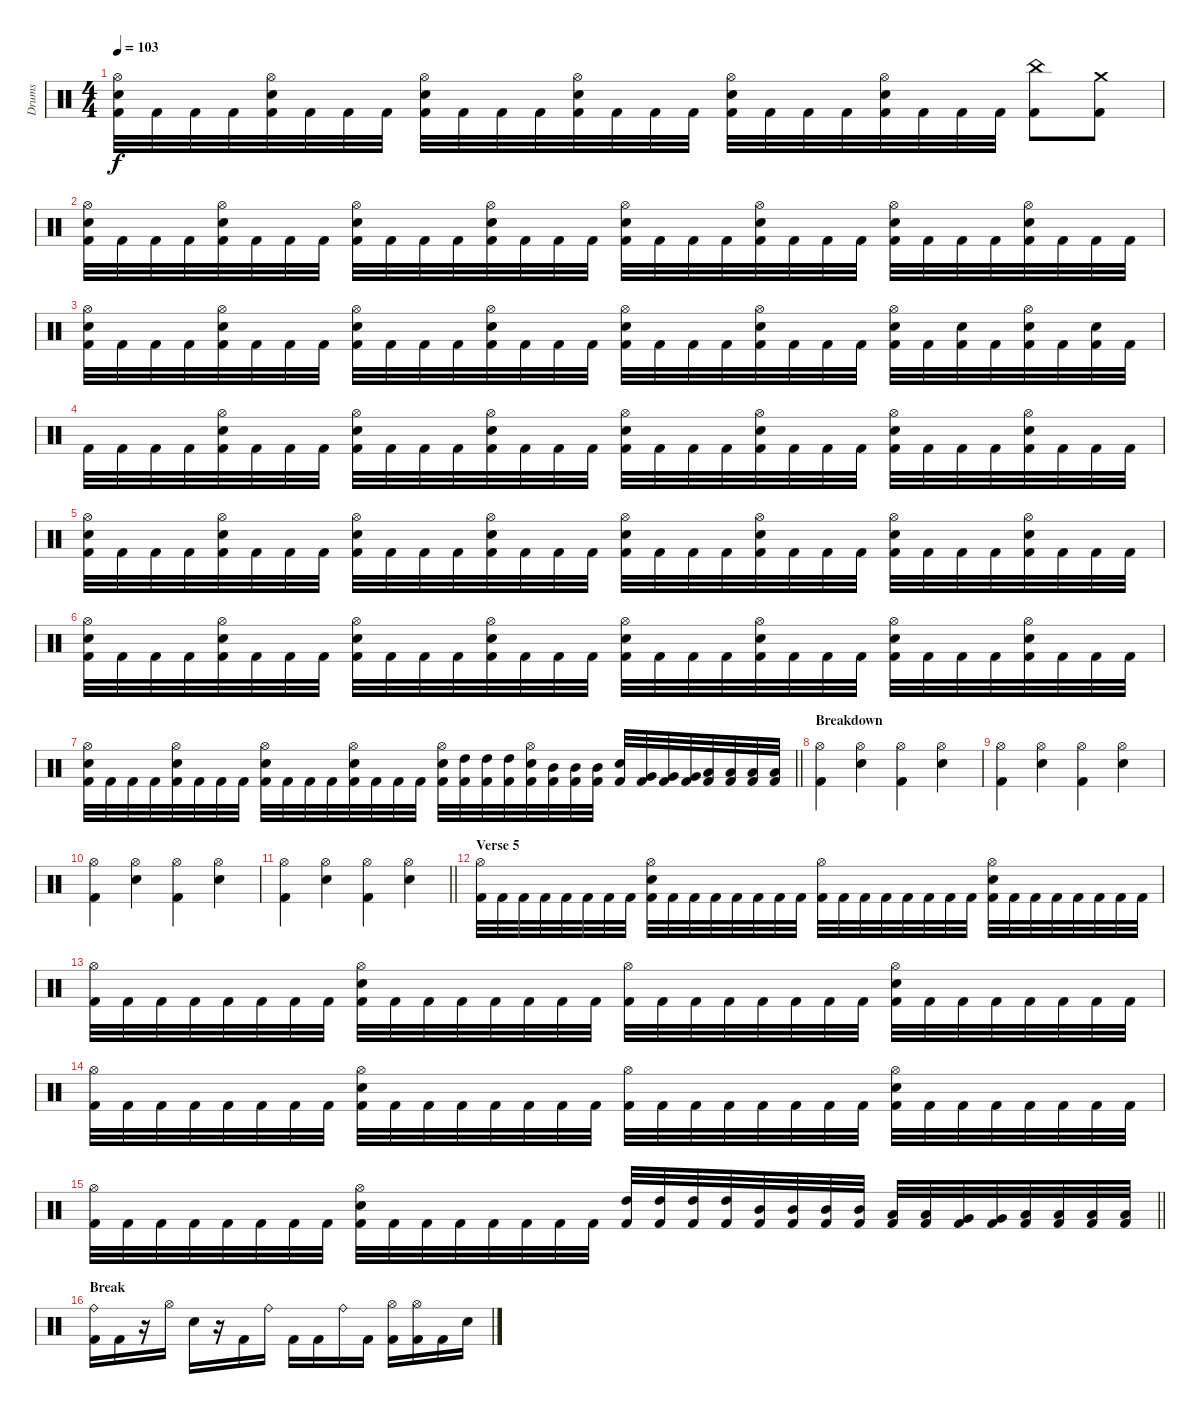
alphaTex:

\track ("Drums" "Drums") {instrument percussion}
\staff {score}
\articulation defaults
\ts (4 4)
\tempo 103
\clef neutral
\ks c
("Hi-Hat (open)" "Electric Snare (hit)" "Kick (hit) 2").32{dy f} "Kick (hit) 2".32 "Kick (hit) 2".32 "Kick (hit) 2".32 ("Hi-Hat (open)" "Electric Snare (hit)" "Kick (hit) 2").32 "Kick (hit) 2".32 "Kick (hit) 2".32 "Kick (hit) 2".32 ("Hi-Hat (open)" "Electric Snare (hit)" "Kick (hit) 2").32 "Kick (hit) 2".32 "Kick (hit) 2".32 "Kick (hit) 2".32 ("Hi-Hat (open)" "Electric Snare (hit)" "Kick (hit) 2").32 "Kick (hit) 2".32 "Kick (hit) 2".32 "Kick (hit) 2".32 ("Hi-Hat (open)" "Electric Snare (hit)" "Kick (hit) 2").32 "Kick (hit) 2".32 "Kick (hit) 2".32 "Kick (hit) 2".32 ("Hi-Hat (open)" "Electric Snare (hit)" "Kick (hit) 2").32 "Kick (hit) 2".32 "Kick (hit) 2".32 "Kick (hit) 2".32 ("China (hit)" "Kick (hit) 2").8 ("Crash medium (hit)" "Kick (hit) 2").8 |
("Hi-Hat (open)" "Electric Snare (hit)" "Kick (hit) 2").32 "Kick (hit) 2".32 "Kick (hit) 2".32 "Kick (hit) 2".32 ("Hi-Hat (open)" "Electric Snare (hit)" "Kick (hit) 2").32 "Kick (hit) 2".32 "Kick (hit) 2".32 "Kick (hit) 2".32 ("Hi-Hat (open)" "Electric Snare (hit)" "Kick (hit) 2").32 "Kick (hit) 2".32 "Kick (hit) 2".32 "Kick (hit) 2".32 ("Hi-Hat (open)" "Electric Snare (hit)" "Kick (hit) 2").32 "Kick (hit) 2".32 "Kick (hit) 2".32 "Kick (hit) 2".32 ("Hi-Hat (open)" "Electric Snare (hit)" "Kick (hit) 2").32 "Kick (hit) 2".32 "Kick (hit) 2".32 "Kick (hit) 2".32 ("Hi-Hat (open)" "Electric Snare (hit)" "Kick (hit) 2").32 "Kick (hit) 2".32 "Kick (hit) 2".32 "Kick (hit) 2".32 ("Hi-Hat (open)" "Electric Snare (hit)" "Kick (hit) 2").32 "Kick (hit) 2".32 "Kick (hit) 2".32 "Kick (hit) 2".32 ("Hi-Hat (open)" "Electric Snare (hit)" "Kick (hit) 2").32 "Kick (hit) 2".32 "Kick (hit) 2".32 "Kick (hit) 2".32 |
("Hi-Hat (open)" "Electric Snare (hit)" "Kick (hit) 2").32 "Kick (hit) 2".32 "Kick (hit) 2".32 "Kick (hit) 2".32 ("Hi-Hat (open)" "Electric Snare (hit)" "Kick (hit) 2").32 "Kick (hit) 2".32 "Kick (hit) 2".32 "Kick (hit) 2".32 ("Hi-Hat (open)" "Electric Snare (hit)" "Kick (hit) 2").32 "Kick (hit) 2".32 "Kick (hit) 2".32 "Kick (hit) 2".32 ("Hi-Hat (open)" "Electric Snare (hit)" "Kick (hit) 2").32 "Kick (hit) 2".32 "Kick (hit) 2".32 "Kick (hit) 2".32 ("Hi-Hat (open)" "Electric Snare (hit)" "Kick (hit) 2").32 "Kick (hit) 2".32 "Kick (hit) 2".32 "Kick (hit) 2".32 ("Hi-Hat (open)" "Electric Snare (hit)" "Kick (hit) 2").32 "Kick (hit) 2".32 "Kick (hit) 2".32 "Kick (hit) 2".32 ("Hi-Hat (open)" "Electric Snare (hit)" "Kick (hit) 2").32 "Kick (hit) 2".32 ("Electric Snare (hit)" "Kick (hit) 2").32 "Kick (hit) 2".32 ("Hi-Hat (open)" "Electric Snare (hit)" "Kick (hit) 2").32 "Kick (hit) 2".32 ("Electric Snare (hit)" "Kick (hit) 2").32 "Kick (hit) 2".32 |
"Kick (hit) 2".32 "Kick (hit) 2".32 "Kick (hit) 2".32 "Kick (hit) 2".32 ("Hi-Hat (open)" "Electric Snare (hit)" "Kick (hit) 2").32 "Kick (hit) 2".32 "Kick (hit) 2".32 "Kick (hit) 2".32 ("Hi-Hat (open)" "Electric Snare (hit)" "Kick (hit) 2").32 "Kick (hit) 2".32 "Kick (hit) 2".32 "Kick (hit) 2".32 ("Hi-Hat (open)" "Electric Snare (hit)" "Kick (hit) 2").32 "Kick (hit) 2".32 "Kick (hit) 2".32 "Kick (hit) 2".32 ("Hi-Hat (open)" "Electric Snare (hit)" "Kick (hit) 2").32 "Kick (hit) 2".32 "Kick (hit) 2".32 "Kick (hit) 2".32 ("Hi-Hat (open)" "Electric Snare (hit)" "Kick (hit) 2").32 "Kick (hit) 2".32 "Kick (hit) 2".32 "Kick (hit) 2".32 ("Hi-Hat (open)" "Electric Snare (hit)" "Kick (hit) 2").32 "Kick (hit) 2".32 "Kick (hit) 2".32 "Kick (hit) 2".32 ("Hi-Hat (open)" "Electric Snare (hit)" "Kick (hit) 2").32 "Kick (hit) 2".32 "Kick (hit) 2".32 "Kick (hit) 2".32 |
("Hi-Hat (open)" "Electric Snare (hit)" "Kick (hit) 2").32 "Kick (hit) 2".32 "Kick (hit) 2".32 "Kick (hit) 2".32 ("Hi-Hat (open)" "Electric Snare (hit)" "Kick (hit) 2").32 "Kick (hit) 2".32 "Kick (hit) 2".32 "Kick (hit) 2".32 ("Hi-Hat (open)" "Electric Snare (hit)" "Kick (hit) 2").32 "Kick (hit) 2".32 "Kick (hit) 2".32 "Kick (hit) 2".32 ("Hi-Hat (open)" "Electric Snare (hit)" "Kick (hit) 2").32 "Kick (hit) 2".32 "Kick (hit) 2".32 "Kick (hit) 2".32 ("Hi-Hat (open)" "Electric Snare (hit)" "Kick (hit) 2").32 "Kick (hit) 2".32 "Kick (hit) 2".32 "Kick (hit) 2".32 ("Hi-Hat (open)" "Electric Snare (hit)" "Kick (hit) 2").32 "Kick (hit) 2".32 "Kick (hit) 2".32 "Kick (hit) 2".32 ("Hi-Hat (open)" "Electric Snare (hit)" "Kick (hit) 2").32 "Kick (hit) 2".32 "Kick (hit) 2".32 "Kick (hit) 2".32 ("Hi-Hat (open)" "Electric Snare (hit)" "Kick (hit) 2").32 "Kick (hit) 2".32 "Kick (hit) 2".32 "Kick (hit) 2".32 |
("Hi-Hat (open)" "Electric Snare (hit)" "Kick (hit) 2").32 "Kick (hit) 2".32 "Kick (hit) 2".32 "Kick (hit) 2".32 ("Hi-Hat (open)" "Electric Snare (hit)" "Kick (hit) 2").32 "Kick (hit) 2".32 "Kick (hit) 2".32 "Kick (hit) 2".32 ("Hi-Hat (open)" "Electric Snare (hit)" "Kick (hit) 2").32 "Kick (hit) 2".32 "Kick (hit) 2".32 "Kick (hit) 2".32 ("Hi-Hat (open)" "Electric Snare (hit)" "Kick (hit) 2").32 "Kick (hit) 2".32 "Kick (hit) 2".32 "Kick (hit) 2".32 ("Hi-Hat (open)" "Electric Snare (hit)" "Kick (hit) 2").32 "Kick (hit) 2".32 "Kick (hit) 2".32 "Kick (hit) 2".32 ("Hi-Hat (open)" "Electric Snare (hit)" "Kick (hit) 2").32 "Kick (hit) 2".32 "Kick (hit) 2".32 "Kick (hit) 2".32 ("Hi-Hat (open)" "Electric Snare (hit)" "Kick (hit) 2").32 "Kick (hit) 2".32 "Kick (hit) 2".32 "Kick (hit) 2".32 ("Hi-Hat (open)" "Electric Snare (hit)" "Kick (hit) 2").32 "Kick (hit) 2".32 "Kick (hit) 2".32 "Kick (hit) 2".32 |
\barLineRight lightlight
("Hi-Hat (open)" "Electric Snare (hit)" "Kick (hit) 2").32 "Kick (hit) 2".32 "Kick (hit) 2".32 "Kick (hit) 2".32 ("Hi-Hat (open)" "Electric Snare (hit)" "Kick (hit) 2").32 "Kick (hit) 2".32 "Kick (hit) 2".32 "Kick (hit) 2".32 ("Hi-Hat (open)" "Electric Snare (hit)" "Kick (hit) 2").32 "Kick (hit) 2".32 "Kick (hit) 2".32 "Kick (hit) 2".32 ("Hi-Hat (open)" "Electric Snare (hit)" "Kick (hit) 2").32 "Kick (hit) 2".32 "Kick (hit) 2".32 "Kick (hit) 2".32 ("Hi-Hat (open)" "Electric Snare (hit)" "Kick (hit) 2").32 ("High Tom (hit)" "Kick (hit) 2").32 ("High Tom (hit)" "Kick (hit) 2").32 ("High Tom (hit)" "Kick (hit) 2").32 ("Hi-Hat (open)" "Electric Snare (hit)" "Kick (hit) 2").32 ("Mid Tom (hit)" "Kick (hit) 2").32 ("Mid Tom (hit)" "Kick (hit) 2").32 ("Mid Tom (hit)" "Kick (hit) 2").32 ("Electric Snare (hit)" "Kick (hit) 2").32 ("Very Low Tom (hit)" "Kick (hit) 2").32 ("Very Low Tom (hit)" "Kick (hit) 2").32 ("Very Low Tom (hit)" "Kick (hit) 2").32 ("Low Floor Tom (hit)" "Kick (hit) 2").32 ("Low Floor Tom (hit)" "Kick (hit) 2").32 ("Low Floor Tom (hit)" "Kick (hit) 2").32 ("Low Floor Tom (hit)" "Kick (hit) 2").32 |
\section ("" "Breakdown")
("Hi-Hat (open)" "Kick (hit) 2").4 ("Hi-Hat (open)" "Electric Snare (hit)").4 ("Hi-Hat (open)" "Kick (hit) 2").4 ("Hi-Hat (open)" "Electric Snare (hit)").4 |
("Hi-Hat (open)" "Kick (hit) 2").4 ("Hi-Hat (open)" "Electric Snare (hit)").4 ("Hi-Hat (open)" "Kick (hit) 2").4 ("Hi-Hat (open)" "Electric Snare (hit)").4 |
("Hi-Hat (open)" "Kick (hit) 2").4 ("Hi-Hat (open)" "Electric Snare (hit)").4 ("Hi-Hat (open)" "Kick (hit) 2").4 ("Hi-Hat (open)" "Electric Snare (hit)").4 |
\barLineRight lightlight
("Hi-Hat (open)" "Kick (hit) 2").4 ("Hi-Hat (open)" "Electric Snare (hit)").4 ("Hi-Hat (open)" "Kick (hit) 2").4 ("Hi-Hat (open)" "Electric Snare (hit)").4 |
\section ("" "Verse 5")
("Hi-Hat (open)" "Kick (hit) 2").32 "Kick (hit) 2".32 "Kick (hit) 2".32 "Kick (hit) 2".32 "Kick (hit) 2".32 "Kick (hit) 2".32 "Kick (hit) 2".32 "Kick (hit) 2".32 ("Hi-Hat (open)" "Electric Snare (hit)" "Kick (hit) 2").32 "Kick (hit) 2".32 "Kick (hit) 2".32 "Kick (hit) 2".32 "Kick (hit) 2".32 "Kick (hit) 2".32 "Kick (hit) 2".32 "Kick (hit) 2".32 ("Hi-Hat (open)" "Kick (hit) 2").32 "Kick (hit) 2".32 "Kick (hit) 2".32 "Kick (hit) 2".32 "Kick (hit) 2".32 "Kick (hit) 2".32 "Kick (hit) 2".32 "Kick (hit) 2".32 ("Hi-Hat (open)" "Electric Snare (hit)" "Kick (hit) 2").32 "Kick (hit) 2".32 "Kick (hit) 2".32 "Kick (hit) 2".32 "Kick (hit) 2".32 "Kick (hit) 2".32 "Kick (hit) 2".32 "Kick (hit) 2".32 |
("Hi-Hat (open)" "Kick (hit) 2").32 "Kick (hit) 2".32 "Kick (hit) 2".32 "Kick (hit) 2".32 "Kick (hit) 2".32 "Kick (hit) 2".32 "Kick (hit) 2".32 "Kick (hit) 2".32 ("Hi-Hat (open)" "Electric Snare (hit)" "Kick (hit) 2").32 "Kick (hit) 2".32 "Kick (hit) 2".32 "Kick (hit) 2".32 "Kick (hit) 2".32 "Kick (hit) 2".32 "Kick (hit) 2".32 "Kick (hit) 2".32 ("Hi-Hat (open)" "Kick (hit) 2").32 "Kick (hit) 2".32 "Kick (hit) 2".32 "Kick (hit) 2".32 "Kick (hit) 2".32 "Kick (hit) 2".32 "Kick (hit) 2".32 "Kick (hit) 2".32 ("Hi-Hat (open)" "Electric Snare (hit)" "Kick (hit) 2").32 "Kick (hit) 2".32 "Kick (hit) 2".32 "Kick (hit) 2".32 "Kick (hit) 2".32 "Kick (hit) 2".32 "Kick (hit) 2".32 "Kick (hit) 2".32 |
("Hi-Hat (open)" "Kick (hit) 2").32 "Kick (hit) 2".32 "Kick (hit) 2".32 "Kick (hit) 2".32 "Kick (hit) 2".32 "Kick (hit) 2".32 "Kick (hit) 2".32 "Kick (hit) 2".32 ("Hi-Hat (open)" "Electric Snare (hit)" "Kick (hit) 2").32 "Kick (hit) 2".32 "Kick (hit) 2".32 "Kick (hit) 2".32 "Kick (hit) 2".32 "Kick (hit) 2".32 "Kick (hit) 2".32 "Kick (hit) 2".32 ("Hi-Hat (open)" "Kick (hit) 2").32 "Kick (hit) 2".32 "Kick (hit) 2".32 "Kick (hit) 2".32 "Kick (hit) 2".32 "Kick (hit) 2".32 "Kick (hit) 2".32 "Kick (hit) 2".32 ("Hi-Hat (open)" "Electric Snare (hit)" "Kick (hit) 2").32 "Kick (hit) 2".32 "Kick (hit) 2".32 "Kick (hit) 2".32 "Kick (hit) 2".32 "Kick (hit) 2".32 "Kick (hit) 2".32 "Kick (hit) 2".32 |
\barLineRight lightlight
("Hi-Hat (open)" "Kick (hit) 2").32 "Kick (hit) 2".32 "Kick (hit) 2".32 "Kick (hit) 2".32 "Kick (hit) 2".32 "Kick (hit) 2".32 "Kick (hit) 2".32 "Kick (hit) 2".32 ("Hi-Hat (open)" "Electric Snare (hit)" "Kick (hit) 2").32 "Kick (hit) 2".32 "Kick (hit) 2".32 "Kick (hit) 2".32 "Kick (hit) 2".32 "Kick (hit) 2".32 "Kick (hit) 2".32 "Kick (hit) 2".32 ("High Tom (hit)" "Kick (hit) 2").32 ("High Tom (hit)" "Kick (hit) 2").32 ("High Tom (hit)" "Kick (hit) 2").32 ("High Tom (hit)" "Kick (hit) 2").32 ("Mid Tom (hit)" "Kick (hit) 2").32 ("Mid Tom (hit)" "Kick (hit) 2").32 ("Mid Tom (hit)" "Kick (hit) 2").32 ("Mid Tom (hit)" "Kick (hit) 2").32 ("Low Tom (hit)" "Kick (hit) 2").32 ("Low Tom (hit)" "Kick (hit) 2").32 ("Very Low Tom (hit)" "Kick (hit) 2").32 ("Very Low Tom (hit)" "Kick (hit) 2").32 ("Low Floor Tom (hit)" "Kick (hit) 2").32 ("Low Floor Tom (hit)" "Kick (hit) 2").32 ("Low Floor Tom (hit)" "Kick (hit) 2").32 ("Low Floor Tom (hit)" "Kick (hit) 2").32 |
\section ("" "Break")
("Ride (bell)" "Kick (hit) 2").16 "Kick (hit) 2".16 r.16 "Hi-Hat (open)".16 "Electric Snare (hit)".16 r.16 "Kick (hit) 2".16 "Ride (bell)".16 "Kick (hit) 2".16 "Kick (hit) 2".16 "Ride (bell)".16 "Kick (hit) 2".16 ("Hi-Hat (open)" "Kick (hit) 2").16 ("Hi-Hat (open)" "Kick (hit) 2").16 "Kick (hit) 2".16 "Electric Snare (hit)".16
